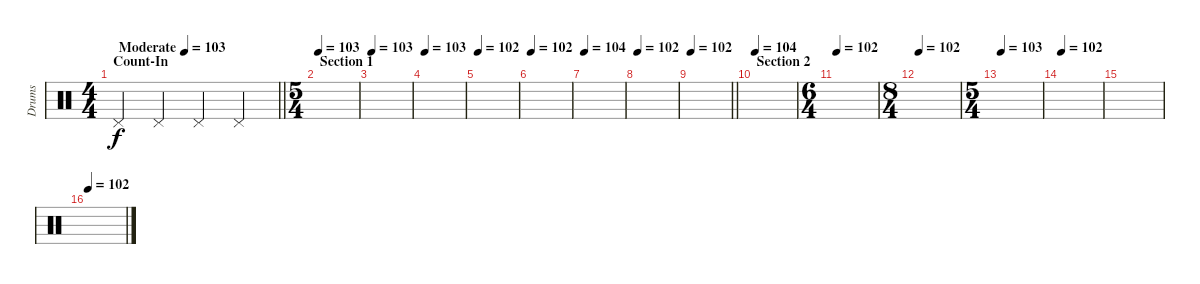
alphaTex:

\track ("Drums" "Drums") {instrument percussion}
\staff {score}
\articulation defaults
\ts (4 4)
\section ("" "Count-In")
\tempo (103 "Moderate")
\clef neutral
\barLineRight lightlight
\ks c "Pedal Hi-Hat (hit)".4{dy f} "Pedal Hi-Hat (hit)".4 "Pedal Hi-Hat (hit)".4 "Pedal Hi-Hat (hit)".4
|
\ts (5 4)
\section ("" "Section 1")
\tempo 103
|
\tempo 103
|
\tempo 103
|
\tempo 102
|
\tempo 102
|
\tempo 104
|
\tempo 102
|
\tempo 102
\barLineRight lightlight
|
\section ("" "Section 2")
\tempo 104
|
\ts (6 4)
\tempo 102
|
\ts (8 4)
\tempo 102
|
\ts (5 4)
\tempo 103
|
\tempo 102
|
|
\tempo 102
